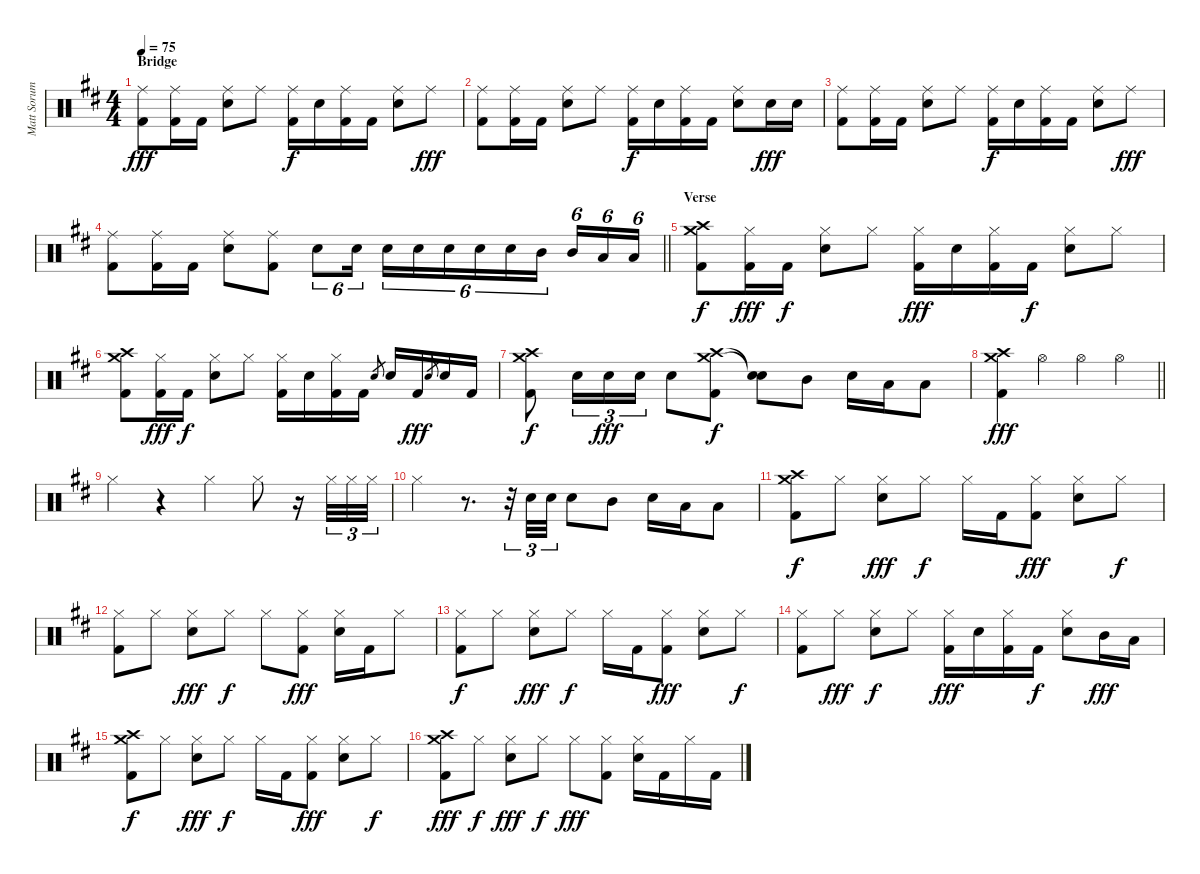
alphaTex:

\track ("Matt Sorum- Drums" "Matt Sorum") {instrument percussion}
\staff {score}
\articulation defaults
\ts (4 4)
\section ("" "Bridge")
\tempo 75
\clef neutral
\ks d
("Ride (middle)" "Kick (hit) 2").8{dy fff} ("Ride (middle)" "Kick (hit) 2").16 "Kick (hit) 2".16 ("Ride (middle)" "Snare (hit) 2").8 "Ride (middle)".8 ("Ride (middle)" "Kick (hit) 2").16{dy f} "Snare (hit) 2".16 ("Ride (middle)" "Kick (hit) 2").16 "Kick (hit) 2".16 ("Ride (middle)" "Snare (hit) 2").8 "Ride (middle)".8{dy fff} |
("Ride (middle)" "Kick (hit) 2").8 ("Ride (middle)" "Kick (hit) 2").16 "Kick (hit) 2".16 ("Ride (middle)" "Snare (hit) 2").8 "Ride (middle)".8 ("Ride (middle)" "Kick (hit) 2").16{dy f} "Snare (hit) 2".16 ("Ride (middle)" "Kick (hit) 2").16 "Kick (hit) 2".16 ("Ride (middle)" "Snare (hit) 2").8 "Snare (hit) 2".16{dy fff} "Snare (hit) 2".16 |
("Ride (middle)" "Kick (hit) 2").8 ("Ride (middle)" "Kick (hit) 2").16 "Kick (hit) 2".16 ("Ride (middle)" "Snare (hit) 2").8 "Ride (middle)".8 ("Ride (middle)" "Kick (hit) 2").16{dy f} "Snare (hit) 2".16 ("Ride (middle)" "Kick (hit) 2").16 "Kick (hit) 2".16 ("Ride (middle)" "Snare (hit) 2").8 "Ride (middle)".8{dy fff} |
\barLineRight lightlight
("Ride (middle)" "Kick (hit) 2").8 ("Ride (middle)" "Kick (hit) 2").16 "Kick (hit) 2".16 ("Ride (middle)" "Snare (hit) 2").8 ("Ride (middle)" "Kick (hit) 2").8 "Snare (hit) 2".8{tu (6 4)} "Snare (hit) 2".16{tu (6 4) beam splitsecondary} "Snare (hit) 2".16{tu (6 4)} "Snare (hit) 2".16{tu (6 4)} "Snare (hit) 2".16{tu (6 4)} "Snare (hit) 2".16{tu (6 4)} "Snare (hit) 2".16{tu (6 4)} "Mid Tom (hit)".16{tu (6 4) beam splitsecondary} "Mid Tom (hit)".16{tu (6 4)} "Low Tom (hit)".16{tu (6 4)} "Low Tom (hit)".16{tu (6 4)} |
\section ("" "Verse")
("Crash medium (hit)" "Crash high (hit)" "Kick (hit) 2").8{dy f} ("Hi-Hat (closed)" "Kick (hit) 2").16{dy fff} "Kick (hit) 2".16{dy f} ("Hi-Hat (closed)" "Snare (hit) 2").8 "Hi-Hat (closed)".8 ("Hi-Hat (closed)" "Kick (hit) 2").16{dy fff} "Snare (hit) 2".16 ("Hi-Hat (closed)" "Kick (hit) 2").16 "Kick (hit) 2".16{dy f} ("Hi-Hat (closed)" "Snare (hit) 2").8 "Hi-Hat (closed)".8 |
("Crash medium (hit)" "Crash high (hit)" "Kick (hit) 2").8 ("Hi-Hat (closed)" "Kick (hit) 2").16{dy fff} "Kick (hit) 2".16{dy f} ("Hi-Hat (closed)" "Snare (hit) 2").8 "Hi-Hat (closed)".8 ("Hi-Hat (closed)" "Kick (hit) 2").16 "Snare (hit) 2".16 ("Hi-Hat (closed)" "Kick (hit) 2").16 "Kick (hit) 2".16 "Snare (hit) 2".8{gr} "Snare (hit) 2".16 "Kick (hit) 2".16{dy fff} "Snare (hit) 2".8{gr} "Snare (hit) 2".16 "Kick (hit) 2".16 |
("Crash medium (hit)" "Crash high (hit)" "Kick (hit) 2").8{dy f} "Snare (hit) 2".16{tu (3 2)} "Snare (hit) 2".16{tu (3 2) dy fff} "Snare (hit) 2".16{tu (3 2)} "Snare (hit) 2".8 ("Crash medium (hit)" "Crash high (hit)" "Kick (hit) 2").8{dy f} ("Snare (hit)"{t} "Snare (hit)"{t}).8 "Mid Tom (hit)".8 "Snare (hit) 2".16 "Low Tom (hit)".16 "Low Tom (hit)".8 |
\barLineRight lightlight
("Crash medium (hit)" "Crash high (hit)" "Kick (hit) 2").4{dy fff} "Hi-Hat (open)".4 "Hi-Hat (open)".4 "Hi-Hat (open)".4 |
"Hi-Hat (closed)".4 r.4 "Hi-Hat (closed)".4 "Hi-Hat (closed)".8 r.16 "Hi-Hat (closed)".32{tu (3 2)} "Hi-Hat (closed)".32{tu (3 2)} "Hi-Hat (closed)".32{tu (3 2)} |
"Hi-Hat (closed)".4 r.8{d} r.32{tu (3 2)} "Snare (hit) 2".32{tu (3 2)} "Snare (hit) 2".32{tu (3 2)} "Snare (hit) 2".8 "Mid Tom (hit)".8 "Snare (hit) 2".16 "Low Tom (hit)".16 "Low Tom (hit)".8 |
("Crash medium (hit)" "Crash high (hit)" "Kick (hit) 2").8{dy f} "Hi-Hat (closed)".8 ("Hi-Hat (closed)" "Snare (hit) 2").8{dy fff} "Hi-Hat (closed)".8{dy f} "Hi-Hat (closed)".16 "Kick (hit) 2".16 ("Hi-Hat (closed)" "Kick (hit) 2").8{dy fff} ("Hi-Hat (closed)" "Snare (hit) 2").8 "Hi-Hat (closed)".8{dy f} |
("Hi-Hat (closed)" "Kick (hit) 2").8 "Hi-Hat (closed)".8 ("Hi-Hat (closed)" "Snare (hit) 2").8{dy fff} "Hi-Hat (closed)".8{dy f} "Hi-Hat (closed)".8 ("Hi-Hat (closed)" "Kick (hit) 2").8{dy fff} ("Hi-Hat (closed)" "Snare (hit) 2").16 "Kick (hit) 2".16 "Hi-Hat (closed)".8 |
("Hi-Hat (closed)" "Kick (hit) 2").8{dy f} "Hi-Hat (closed)".8 ("Hi-Hat (closed)" "Snare (hit) 2").8{dy fff} "Hi-Hat (closed)".8{dy f} "Hi-Hat (closed)".16 "Kick (hit) 2".16 ("Hi-Hat (closed)" "Kick (hit) 2").8{dy fff} ("Hi-Hat (closed)" "Snare (hit) 2").8 "Hi-Hat (closed)".8{dy f} |
("Hi-Hat (closed)" "Kick (hit) 2").8 "Hi-Hat (closed)".8{dy fff} ("Hi-Hat (closed)" "Snare (hit) 2").8{dy f} "Hi-Hat (closed)".8 ("Hi-Hat (closed)" "Kick (hit) 2").16{dy fff} "Snare (hit) 2".16 ("Hi-Hat (closed)" "Kick (hit) 2").16 "Kick (hit) 2".16{dy f} ("Hi-Hat (closed)" "Snare (hit) 2").8 "Mid Tom (hit)".16{dy fff} "Low Tom (hit)".16 |
("Crash medium (hit)" "Crash high (hit)" "Kick (hit) 2").8{dy f} "Hi-Hat (closed)".8 ("Hi-Hat (closed)" "Snare (hit) 2").8{dy fff} "Hi-Hat (closed)".8{dy f} "Hi-Hat (closed)".16 "Kick (hit) 2".16 ("Hi-Hat (closed)" "Kick (hit) 2").8{dy fff} ("Hi-Hat (closed)" "Snare (hit) 2").8 "Hi-Hat (closed)".8{dy f} |
("Crash medium (hit)" "Crash high (hit)" "Kick (hit) 2").8{dy fff} "Hi-Hat (closed)".8{dy f} ("Hi-Hat (closed)" "Snare (hit) 2").8{dy fff} "Hi-Hat (closed)".8{dy f} "Hi-Hat (closed)".8{dy fff} ("Hi-Hat (closed)" "Kick (hit) 2").8 ("Hi-Hat (closed)" "Snare (hit) 2").16 "Kick (hit) 2".16 "Hi-Hat (closed)".16 "Kick (hit) 2".16
